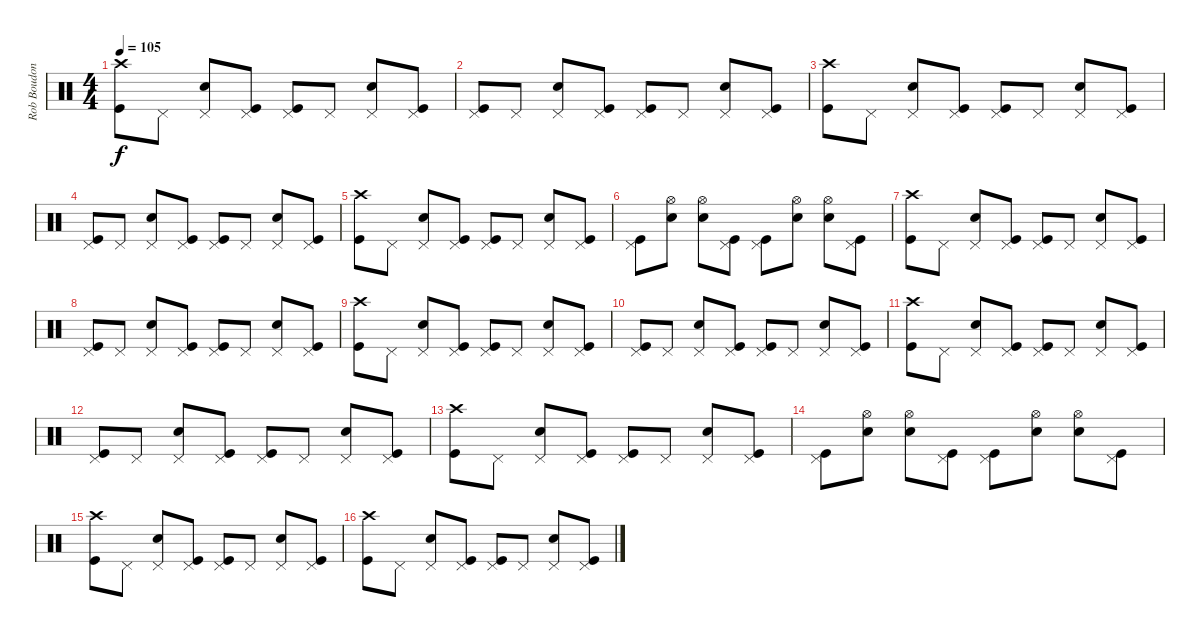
\track ("Rob Boudon [Drums]" "Rob Boudon") {instrument percussion}
\staff {score}
\articulation defaults
\ts (4 4)
\tempo 105
\clef neutral
\ks c
("Crash high (hit)" "Kick (hit)").8{dy f} "Pedal Hi-Hat (hit)".8 ("Pedal Hi-Hat (hit)" "Electric Snare (hit)").8 ("Pedal Hi-Hat (hit)" "Kick (hit)").8 ("Pedal Hi-Hat (hit)" "Kick (hit)").8 "Pedal Hi-Hat (hit)".8 ("Pedal Hi-Hat (hit)" "Electric Snare (hit)").8 ("Pedal Hi-Hat (hit)" "Kick (hit)").8 |
("Pedal Hi-Hat (hit)" "Kick (hit)").8 "Pedal Hi-Hat (hit)".8 ("Electric Snare (hit)" "Pedal Hi-Hat (hit)").8 ("Pedal Hi-Hat (hit)" "Kick (hit)").8 ("Pedal Hi-Hat (hit)" "Kick (hit)").8 "Pedal Hi-Hat (hit)".8 ("Pedal Hi-Hat (hit)" "Electric Snare (hit)").8 ("Pedal Hi-Hat (hit)" "Kick (hit)").8 |
("Crash high (hit)" "Kick (hit)").8 "Pedal Hi-Hat (hit)".8 ("Pedal Hi-Hat (hit)" "Electric Snare (hit)").8 ("Pedal Hi-Hat (hit)" "Kick (hit)").8 ("Pedal Hi-Hat (hit)" "Kick (hit)").8 "Pedal Hi-Hat (hit)".8 ("Pedal Hi-Hat (hit)" "Electric Snare (hit)").8 ("Pedal Hi-Hat (hit)" "Kick (hit)").8 |
("Pedal Hi-Hat (hit)" "Kick (hit)").8 "Pedal Hi-Hat (hit)".8 ("Electric Snare (hit)" "Pedal Hi-Hat (hit)").8 ("Pedal Hi-Hat (hit)" "Kick (hit)").8 ("Pedal Hi-Hat (hit)" "Kick (hit)").8 "Pedal Hi-Hat (hit)".8 ("Pedal Hi-Hat (hit)" "Electric Snare (hit)").8 ("Pedal Hi-Hat (hit)" "Kick (hit)").8 |
("Crash high (hit)" "Kick (hit)").8 "Pedal Hi-Hat (hit)".8 ("Pedal Hi-Hat (hit)" "Electric Snare (hit)").8 ("Pedal Hi-Hat (hit)" "Kick (hit)").8 ("Pedal Hi-Hat (hit)" "Kick (hit)").8 "Pedal Hi-Hat (hit)".8 ("Pedal Hi-Hat (hit)" "Electric Snare (hit)").8 ("Pedal Hi-Hat (hit)" "Kick (hit)").8 |
("Pedal Hi-Hat (hit)" "Kick (hit)").8 ("Hi-Hat (open)" "Electric Snare (hit)").8 ("Hi-Hat (open)" "Electric Snare (hit)").8 ("Pedal Hi-Hat (hit)" "Kick (hit)").8 ("Pedal Hi-Hat (hit)" "Kick (hit)").8 ("Hi-Hat (open)" "Electric Snare (hit)").8 ("Hi-Hat (open)" "Electric Snare (hit)").8 ("Pedal Hi-Hat (hit)" "Kick (hit)").8 |
("Crash high (hit)" "Kick (hit)").8 "Pedal Hi-Hat (hit)".8 ("Pedal Hi-Hat (hit)" "Electric Snare (hit)").8 ("Pedal Hi-Hat (hit)" "Kick (hit)").8 ("Pedal Hi-Hat (hit)" "Kick (hit)").8 "Pedal Hi-Hat (hit)".8 ("Pedal Hi-Hat (hit)" "Electric Snare (hit)").8 ("Pedal Hi-Hat (hit)" "Kick (hit)").8 |
("Pedal Hi-Hat (hit)" "Kick (hit)").8 "Pedal Hi-Hat (hit)".8 ("Electric Snare (hit)" "Pedal Hi-Hat (hit)").8 ("Pedal Hi-Hat (hit)" "Kick (hit)").8 ("Pedal Hi-Hat (hit)" "Kick (hit)").8 "Pedal Hi-Hat (hit)".8 ("Pedal Hi-Hat (hit)" "Electric Snare (hit)").8 ("Pedal Hi-Hat (hit)" "Kick (hit)").8 |
("Crash high (hit)" "Kick (hit)").8 "Pedal Hi-Hat (hit)".8 ("Pedal Hi-Hat (hit)" "Electric Snare (hit)").8 ("Pedal Hi-Hat (hit)" "Kick (hit)").8 ("Pedal Hi-Hat (hit)" "Kick (hit)").8 "Pedal Hi-Hat (hit)".8 ("Pedal Hi-Hat (hit)" "Electric Snare (hit)").8 ("Pedal Hi-Hat (hit)" "Kick (hit)").8 |
("Pedal Hi-Hat (hit)" "Kick (hit)").8 "Pedal Hi-Hat (hit)".8 ("Electric Snare (hit)" "Pedal Hi-Hat (hit)").8 ("Pedal Hi-Hat (hit)" "Kick (hit)").8 ("Pedal Hi-Hat (hit)" "Kick (hit)").8 "Pedal Hi-Hat (hit)".8 ("Pedal Hi-Hat (hit)" "Electric Snare (hit)").8 ("Pedal Hi-Hat (hit)" "Kick (hit)").8 |
("Crash high (hit)" "Kick (hit)").8 "Pedal Hi-Hat (hit)".8 ("Pedal Hi-Hat (hit)" "Electric Snare (hit)").8 ("Pedal Hi-Hat (hit)" "Kick (hit)").8 ("Pedal Hi-Hat (hit)" "Kick (hit)").8 "Pedal Hi-Hat (hit)".8 ("Pedal Hi-Hat (hit)" "Electric Snare (hit)").8 ("Pedal Hi-Hat (hit)" "Kick (hit)").8 |
("Pedal Hi-Hat (hit)" "Kick (hit)").8 "Pedal Hi-Hat (hit)".8 ("Electric Snare (hit)" "Pedal Hi-Hat (hit)").8 ("Pedal Hi-Hat (hit)" "Kick (hit)").8 ("Pedal Hi-Hat (hit)" "Kick (hit)").8 "Pedal Hi-Hat (hit)".8 ("Pedal Hi-Hat (hit)" "Electric Snare (hit)").8 ("Pedal Hi-Hat (hit)" "Kick (hit)").8 |
("Crash high (hit)" "Kick (hit)").8 "Pedal Hi-Hat (hit)".8 ("Pedal Hi-Hat (hit)" "Electric Snare (hit)").8 ("Pedal Hi-Hat (hit)" "Kick (hit)").8 ("Pedal Hi-Hat (hit)" "Kick (hit)").8 "Pedal Hi-Hat (hit)".8 ("Pedal Hi-Hat (hit)" "Electric Snare (hit)").8 ("Pedal Hi-Hat (hit)" "Kick (hit)").8 |
("Pedal Hi-Hat (hit)" "Kick (hit)").8 ("Hi-Hat (open)" "Electric Snare (hit)").8 ("Hi-Hat (open)" "Electric Snare (hit)").8 ("Pedal Hi-Hat (hit)" "Kick (hit)").8 ("Pedal Hi-Hat (hit)" "Kick (hit)").8 ("Hi-Hat (open)" "Electric Snare (hit)").8 ("Hi-Hat (open)" "Electric Snare (hit)").8 ("Pedal Hi-Hat (hit)" "Kick (hit)").8 |
("Crash high (hit)" "Kick (hit)").8 "Pedal Hi-Hat (hit)".8 ("Pedal Hi-Hat (hit)" "Electric Snare (hit)").8 ("Pedal Hi-Hat (hit)" "Kick (hit)").8 ("Pedal Hi-Hat (hit)" "Kick (hit)").8 "Pedal Hi-Hat (hit)".8 ("Pedal Hi-Hat (hit)" "Electric Snare (hit)").8 ("Pedal Hi-Hat (hit)" "Kick (hit)").8 |
("Crash high (hit)" "Kick (hit)").8 "Pedal Hi-Hat (hit)".8 ("Pedal Hi-Hat (hit)" "Electric Snare (hit)").8 ("Pedal Hi-Hat (hit)" "Kick (hit)").8 ("Pedal Hi-Hat (hit)" "Kick (hit)").8 "Pedal Hi-Hat (hit)".8 ("Pedal Hi-Hat (hit)" "Electric Snare (hit)").8 ("Pedal Hi-Hat (hit)" "Kick (hit)").8
